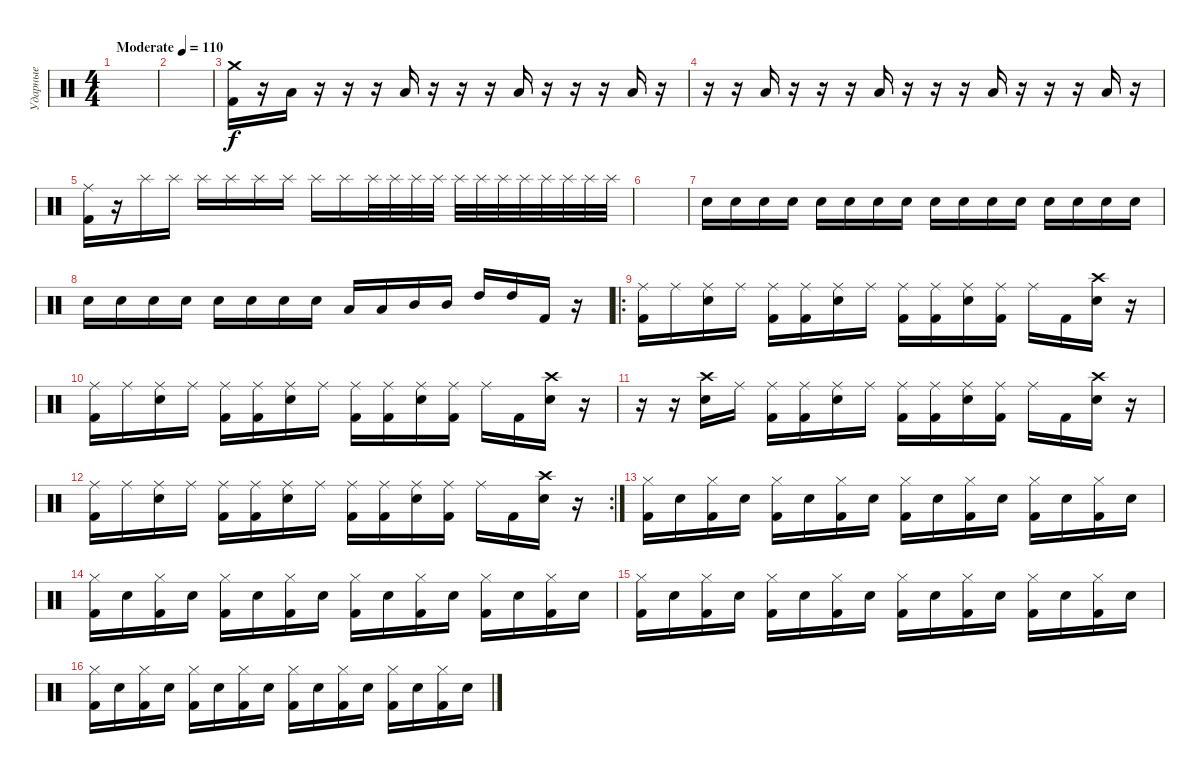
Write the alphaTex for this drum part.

\track ("Ударные" "Ударные") {instrument percussion}
\staff {score}
\articulation defaults
\ts (4 4)
\tempo (110 "Moderate")
\clef neutral
\ks c
|
|
("Kick (hit) 2" "Crash medium (hit)").16 r.16 "Low Tom (hit)".16 r.16 r.16 r.16 "Low Tom (hit)".16 r.16 r.16 r.16 "Low Tom (hit)".16 r.16 r.16 r.16 "Low Tom (hit)".16 r.16 |
r.16 r.16 "Low Tom (hit)".16 r.16 r.16 r.16 "Low Tom (hit)".16 r.16 r.16 r.16 "Low Tom (hit)".16 r.16 r.16 r.16 "Low Tom (hit)".16 r.16 |
("Kick (hit) 2" "Ride (middle)").16 r.16 "Splash (hit)".16 "Splash (hit)".16 "Splash (hit)".16 "Splash (hit)".16 "Splash (hit)".16 "Splash (hit)".16 "Splash (hit)".16 "Splash (hit)".16 "Splash (hit)".32 "Splash (hit)".32 "Splash (hit)".32 "Splash (hit)".32 "Splash (hit)".32 "Splash (hit)".32 "Splash (hit)".32 "Splash (hit)".32 "Splash (hit)".32 "Splash (hit)".32 "Splash (hit)".32 "Splash (hit)".32 |
|
"Electric Snare (hit)".16 "Electric Snare (hit)".16 "Electric Snare (hit)".16 "Electric Snare (hit)".16 "Electric Snare (hit)".16 "Electric Snare (hit)".16 "Electric Snare (hit)".16 "Electric Snare (hit)".16 "Electric Snare (hit)".16 "Electric Snare (hit)".16 "Electric Snare (hit)".16 "Electric Snare (hit)".16 "Electric Snare (hit)".16 "Electric Snare (hit)".16 "Electric Snare (hit)".16 "Electric Snare (hit)".16 |
"Electric Snare (hit)".16 "Electric Snare (hit)".16 "Electric Snare (hit)".16 "Electric Snare (hit)".16 "Electric Snare (hit)".16 "Electric Snare (hit)".16 "Electric Snare (hit)".16 "Electric Snare (hit)".16 "Low Tom (hit)".16 "Low Tom (hit)".16 "Mid Tom (hit)".16 "Mid Tom (hit)".16 "High Tom (hit)".16 "High Tom (hit)".16 "Kick (hit) 2".16 r.16 |
\ro
("Kick (hit) 2" "Ride (middle)").16 "Ride (middle)".16 ("Electric Snare (hit)" "Ride (middle)").16 "Ride (middle)".16 ("Kick (hit) 2" "Ride (middle)").16 ("Kick (hit) 2" "Ride (middle)").16 ("Electric Snare (hit)" "Ride (middle)").16 "Ride (middle)".16 ("Kick (hit) 2" "Ride (middle)").16 ("Kick (hit) 2" "Ride (middle)").16 ("Electric Snare (hit)" "Ride (middle)").16 ("Kick (hit) 2" "Ride (middle)").16 "Ride (middle)".16 "Kick (hit) 2".16 ("Electric Snare (hit)" "Crash high (hit)").16 r.16 |
("Kick (hit) 2" "Ride (middle)").16 "Ride (middle)".16 ("Electric Snare (hit)" "Ride (middle)").16 "Ride (middle)".16 ("Kick (hit) 2" "Ride (middle)").16 ("Kick (hit) 2" "Ride (middle)").16 ("Electric Snare (hit)" "Ride (middle)").16 "Ride (middle)".16 ("Kick (hit) 2" "Ride (middle)").16 ("Kick (hit) 2" "Ride (middle)").16 ("Electric Snare (hit)" "Ride (middle)").16 ("Kick (hit) 2" "Ride (middle)").16 "Ride (middle)".16 "Kick (hit) 2".16 ("Electric Snare (hit)" "Crash high (hit)").16 r.16 |
r.16 r.16 ("Electric Snare (hit)" "Crash high (hit)").16 "Ride (middle)".16 ("Kick (hit) 2" "Ride (middle)").16 ("Kick (hit) 2" "Ride (middle)").16 ("Electric Snare (hit)" "Ride (middle)").16 "Ride (middle)".16 ("Kick (hit) 2" "Ride (middle)").16 ("Kick (hit) 2" "Ride (middle)").16 ("Electric Snare (hit)" "Ride (middle)").16 ("Kick (hit) 2" "Ride (middle)").16 "Ride (middle)".16 "Kick (hit) 2".16 ("Electric Snare (hit)" "Crash high (hit)").16 r.16 |
\rc 2
("Kick (hit) 2" "Ride (middle)").16 "Ride (middle)".16 ("Electric Snare (hit)" "Ride (middle)").16 "Ride (middle)".16 ("Kick (hit) 2" "Ride (middle)").16 ("Kick (hit) 2" "Ride (middle)").16 ("Electric Snare (hit)" "Ride (middle)").16 "Ride (middle)".16 ("Kick (hit) 2" "Ride (middle)").16 ("Kick (hit) 2" "Ride (middle)").16 ("Electric Snare (hit)" "Ride (middle)").16 ("Kick (hit) 2" "Ride (middle)").16 "Ride (middle)".16 "Kick (hit) 2".16 ("Electric Snare (hit)" "Crash high (hit)").16 r.16 |
("Kick (hit) 2" "Hi-Hat (closed)").16 "Electric Snare (hit)".16 ("Kick (hit) 2" "Hi-Hat (closed)").16 "Electric Snare (hit)".16 ("Kick (hit) 2" "Hi-Hat (closed)").16 "Electric Snare (hit)".16 ("Kick (hit) 2" "Hi-Hat (closed)").16 "Electric Snare (hit)".16 ("Kick (hit) 2" "Hi-Hat (closed)").16 "Electric Snare (hit)".16 ("Kick (hit) 2" "Hi-Hat (closed)").16 "Electric Snare (hit)".16 ("Kick (hit) 2" "Hi-Hat (closed)").16 "Electric Snare (hit)".16 ("Kick (hit) 2" "Hi-Hat (closed)").16 "Electric Snare (hit)".16 |
("Kick (hit) 2" "Hi-Hat (closed)").16 "Electric Snare (hit)".16 ("Kick (hit) 2" "Hi-Hat (closed)").16 "Electric Snare (hit)".16 ("Kick (hit) 2" "Hi-Hat (closed)").16 "Electric Snare (hit)".16 ("Kick (hit) 2" "Hi-Hat (closed)").16 "Electric Snare (hit)".16 ("Kick (hit) 2" "Hi-Hat (closed)").16 "Electric Snare (hit)".16 ("Kick (hit) 2" "Hi-Hat (closed)").16 "Electric Snare (hit)".16 ("Kick (hit) 2" "Hi-Hat (closed)").16 "Electric Snare (hit)".16 ("Kick (hit) 2" "Hi-Hat (closed)").16 "Electric Snare (hit)".16 |
("Kick (hit) 2" "Hi-Hat (closed)").16 "Electric Snare (hit)".16 ("Kick (hit) 2" "Hi-Hat (closed)").16 "Electric Snare (hit)".16 ("Kick (hit) 2" "Hi-Hat (closed)").16 "Electric Snare (hit)".16 ("Kick (hit) 2" "Hi-Hat (closed)").16 "Electric Snare (hit)".16 ("Kick (hit) 2" "Hi-Hat (closed)").16 "Electric Snare (hit)".16 ("Kick (hit) 2" "Hi-Hat (closed)").16 "Electric Snare (hit)".16 ("Kick (hit) 2" "Hi-Hat (closed)").16 "Electric Snare (hit)".16 ("Kick (hit) 2" "Hi-Hat (closed)").16 "Electric Snare (hit)".16 |
("Kick (hit) 2" "Hi-Hat (closed)").16 "Electric Snare (hit)".16 ("Kick (hit) 2" "Hi-Hat (closed)").16 "Electric Snare (hit)".16 ("Kick (hit) 2" "Hi-Hat (closed)").16 "Electric Snare (hit)".16 ("Kick (hit) 2" "Hi-Hat (closed)").16 "Electric Snare (hit)".16 ("Kick (hit) 2" "Hi-Hat (closed)").16 "Electric Snare (hit)".16 ("Kick (hit) 2" "Hi-Hat (closed)").16 "Electric Snare (hit)".16 ("Kick (hit) 2" "Hi-Hat (closed)").16 "Electric Snare (hit)".16 ("Kick (hit) 2" "Hi-Hat (closed)").16 "Electric Snare (hit)".16
